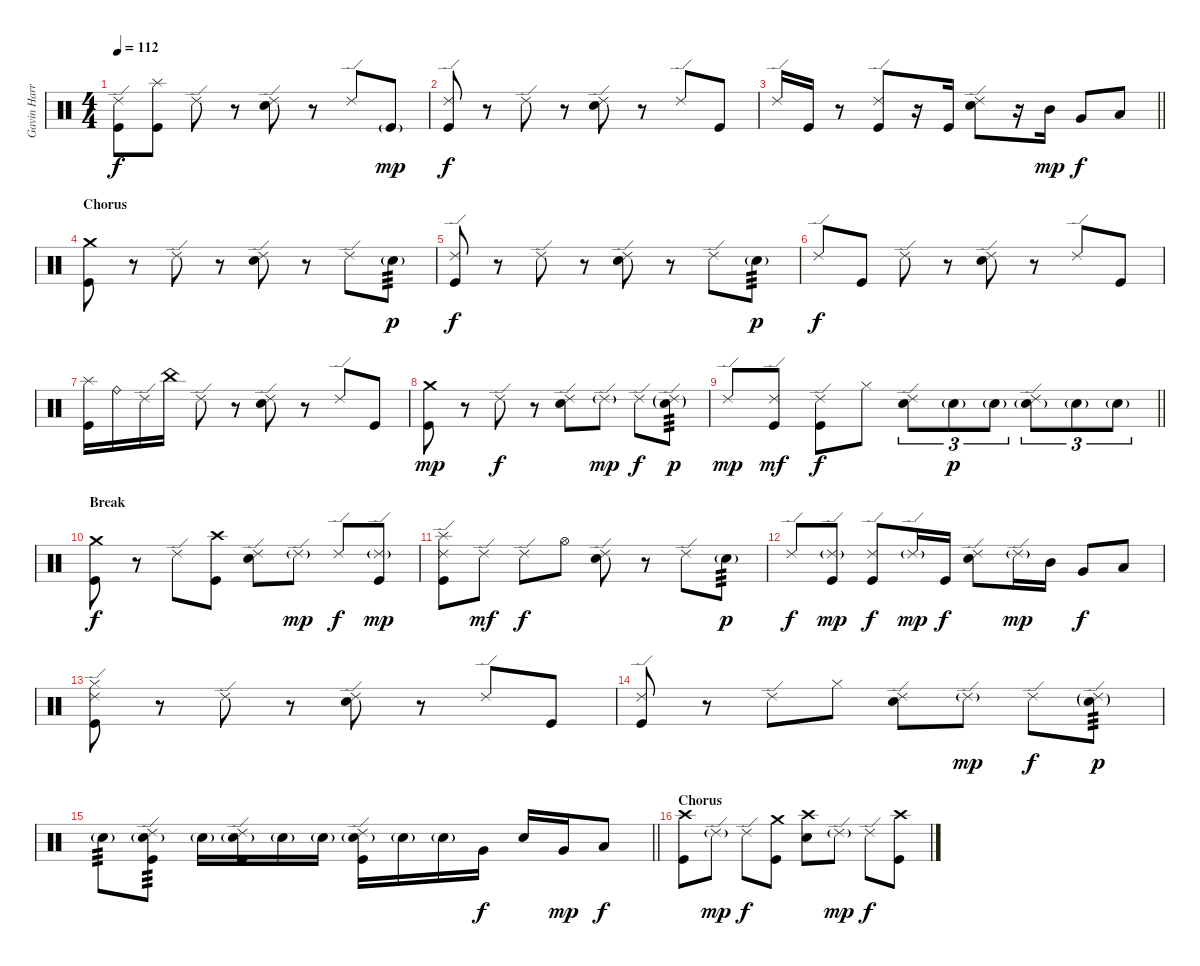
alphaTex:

\track ("Gavin Harrison - Drums" "Gavin Harr") {instrument percussion}
\staff {score}
\articulation defaults
\ts (4 4)
\tempo 112
\clef neutral
\ks c
("Ride (edge) 2" "Kick (hit)").8{dy f} ("Splash (hit)" "Kick (hit)").8 "Ride (edge) 2".8 r.8 ("Ride (edge) 2" "Snare (hit) 2").8 r.8 "Ride (edge) 2".8 "Kick (hit)"{g}.8{dy mp} |
("Ride (edge) 2" "Kick (hit)").8{dy f} r.8 "Ride (edge) 2".8 r.8 ("Ride (edge) 2" "Snare (hit) 2").8 r.8 "Ride (edge) 2".8 "Kick (hit)".8 |
\barLineRight lightlight "Ride (edge) 2".16 "Kick (hit)".16
r.8 ("Ride (edge) 2" "Kick (hit)").8 r.16 "Kick (hit)".16 ("Ride (edge) 2" "Snare (hit) 2").8 r.16 "Mid Tom (hit)".16{dy mp} "Very Low Tom (hit)".8{dy f} "Low Floor Tom (hit)".8 |
\section ("" "Chorus")
("Crash medium (hit)" "Kick (hit)").8 r.8 "Ride (edge) 2".8 r.8 ("Ride (edge) 2" "Snare (hit) 2").8 r.8 "Ride (edge) 2".8 "Snare (hit) 2"{g}.8{tp 3 dy p} |
("Ride (edge) 2" "Kick (hit)").8{dy f} r.8 "Ride (edge) 2".8 r.8 ("Ride (edge) 2" "Snare (hit) 2").8 r.8 "Ride (edge) 2".8 "Snare (hit) 2"{g}.8{tp 3 dy p} |
"Ride (edge) 2".8{dy f} "Kick (hit)".8 "Ride (edge) 2".8 r.8 ("Ride (edge) 2" "Snare (hit) 2").8 r.8 "Ride (edge) 2".8 "Kick (hit)".8 |
("Splash (hit)" "Kick (hit)").16 "Ride (bell)".16 "Ride (edge) 2".16 "China (hit)".16 "Ride (edge) 2".8 r.8 ("Ride (edge) 2" "Snare (hit) 2").8 r.8 "Ride (edge) 2".8 "Kick (hit)".8 |
("Crash medium (hit)" "Kick (hit)").8{dy mp} r.8 "Ride (edge) 2".8{dy f} r.8 ("Ride (edge) 2" "Snare (hit) 2").8 "Ride (edge) 2"{g}.8{dy mp} "Ride (edge) 2".8{dy f} ("Ride (edge) 2"{g} "Snare (hit) 2"{g}).8{tp 3 dy p} |
\barLineRight lightlight "Ride (edge) 2".8{dy mp}
("Ride (edge) 2" "Kick (hit)").8{dy mf} ("Ride (edge) 2" "Kick (hit)").8{dy f} "Hi-Hat (closed)".8 ("Ride (edge) 2" "Snare (hit) 2").8{tu (3 2)} "Snare (hit) 2"{g}.8{tu (3 2) dy p} "Snare (hit) 2"{g}.8{tu (3 2)} ("Ride (edge) 2" "Snare (hit) 2"{g}).8{tu (3 2)} "Snare (hit) 2"{g}.8{tu (3 2)} "Snare (hit) 2"{g}.8{tu (3 2)} |
\section ("" "Break")
("Crash medium (hit)" "Kick (hit)").8{dy f} r.8 "Ride (edge) 2".8 ("Crash high (hit)" "Kick (hit)").8 ("Ride (edge) 2" "Snare (hit) 2").8 "Ride (edge) 2"{g}.8{dy mp} "Ride (edge) 2".8{dy f} ("Ride (edge) 2"{g} "Kick (hit)").8{dy mp} |
("Ride (edge) 2" "Splash (hit)" "Kick (hit)").8 "Ride (edge) 2".8{dy mf} "Ride (edge) 2".8{dy f} "Hi-Hat (open)".8 ("Ride (edge) 2" "Snare (hit) 2").8 r.8 "Ride (edge) 2".8 "Snare (hit) 2"{g}.8{tp 3 dy p} |
"Ride (edge) 2".8{dy f} ("Ride (edge) 2"{g} "Kick (hit)").8{dy mp} ("Ride (edge) 2" "Kick (hit)").8{dy f} "Ride (edge) 2"{g}.16{dy mp} "Kick (hit)".16{dy f} ("Ride (edge) 2" "Snare (hit) 2").8 "Ride (edge) 2"{g}.16{dy mp} "Mid Tom (hit)".16 "Very Low Tom (hit)".8{dy f} "Low Floor Tom (hit)".8 |
("Ride (edge) 2" "Hi-Hat (closed)" "Kick (hit)").8 r.8 "Ride (edge) 2".8 r.8 ("Ride (edge) 2" "Snare (hit) 2").8 r.8 "Ride (edge) 2".8 "Kick (hit)".8 |
("Ride (edge) 2" "Kick (hit)").8 r.8 "Ride (edge) 2".8 "Hi-Hat (closed)".8 ("Ride (edge) 2" "Snare (hit) 2").8 "Ride (edge) 2"{g}.8{dy mp} "Ride (edge) 2".8{dy f} ("Ride (edge) 2"{g} "Snare (hit) 2"{g}).8{tp 3 dy p} |
\barLineRight lightlight "Snare (hit) 2"{g}.8{tp 3}
("Ride (edge) 2" "Snare (hit) 2"{g} "Kick (hit)").8{tp 3} "Snare (hit) 2"{g}.16 ("Ride (edge) 2" "Snare (hit) 2"{g} "Kick (hit)").16 "Snare (hit) 2"{g}.16 "Snare (hit) 2"{g}.16 ("Ride (edge) 2" "Snare (hit) 2"{g} "Kick (hit)").16 "Snare (hit) 2"{g}.16 "Snare (hit) 2"{g}.16 "Very Low Tom (hit)".16{dy f} "Snare (hit) 2".16 "Very Low Tom (hit)".16{dy mp} "Low Floor Tom (hit)".8{dy f} |
\section ("" "Chorus")
("Crash high (hit)" "Kick (hit)").8 "Ride (edge) 2"{g}.8{dy mp} "Ride (edge) 2".8{dy f} ("Crash medium (hit)" "Kick (hit)").8 ("Crash high (hit)" "Snare (hit) 2").8 "Ride (edge) 2"{g}.8{dy mp} "Ride (edge) 2".8{dy f} ("Crash high (hit)" "Kick (hit)").8
